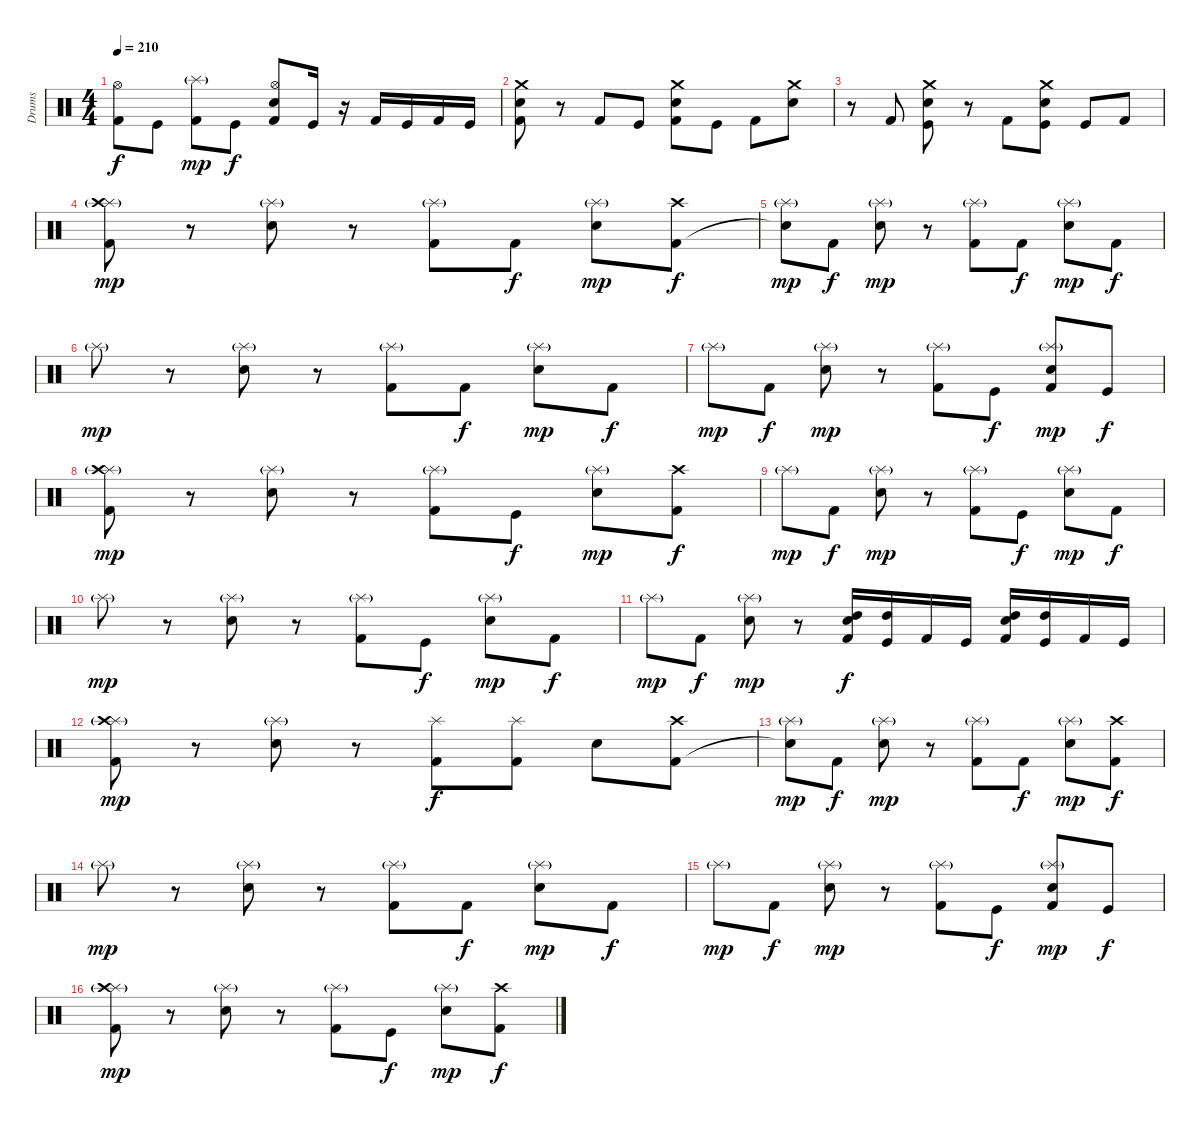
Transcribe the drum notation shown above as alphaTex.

\track ("Drums" "Drums") {instrument percussion}
\staff {score}
\articulation defaults
\ts (4 4)
\tempo 210
\clef neutral
\ks c
("Kick (hit) 2" "Hi-Hat (open)").8{dy f} "Kick (hit)".8 ("Kick (hit) 2" "Splash (hit)"{g}).8{dy mp} "Kick (hit)".8{dy f} ("Kick (hit) 2" "Electric Snare (hit)" "Hi-Hat (open)").8 "Kick (hit)".16 r.16 "Kick (hit) 2".16 "Kick (hit)".16 "Kick (hit) 2".16 "Kick (hit)".16 |
("Kick (hit) 2" "Electric Snare (hit)" "Crash medium (hit)").8 r.8 "Kick (hit) 2".8 "Kick (hit)".8 ("Kick (hit) 2" "Electric Snare (hit)" "Crash medium (hit)").8 "Kick (hit)".8 "Kick (hit) 2".8 ("Electric Snare (hit)" "Crash medium (hit)").8 |
r.8 "Kick (hit) 2".8 ("Kick (hit)" "Electric Snare (hit)" "Crash medium (hit)").8 r.8 "Kick (hit) 2".8 ("Kick (hit)" "Electric Snare (hit)" "Crash medium (hit)").8 "Kick (hit)".8 "Kick (hit) 2".8 |
("Kick (hit) 2" "Splash (hit)"{g} "Crash high (hit)").8{dy mp} r.8 ("Splash (hit)"{g} "Electric Snare (hit)").8 r.8 ("Kick (hit) 2" "Splash (hit)"{g}).8 "Kick (hit) 2".8{dy f} ("Splash (hit)"{g} "Electric Snare (hit)").8{dy mp} ("Kick (hit) 2" "Crash high (hit)").8{dy f} |
("Snare (hit)"{t} "Splash (hit)"{g}).8{dy mp} "Kick (hit) 2".8{dy f} ("Splash (hit)"{g} "Electric Snare (hit)").8{dy mp} r.8 ("Kick (hit) 2" "Splash (hit)"{g}).8 "Kick (hit) 2".8{dy f} ("Splash (hit)"{g} "Electric Snare (hit)").8{dy mp} "Kick (hit) 2".8{dy f} |
"Splash (hit)"{g}.8{dy mp} r.8 ("Splash (hit)"{g} "Electric Snare (hit)").8 r.8 ("Kick (hit) 2" "Splash (hit)"{g}).8 "Kick (hit) 2".8{dy f} ("Splash (hit)"{g} "Electric Snare (hit)").8{dy mp} "Kick (hit) 2".8{dy f} |
"Splash (hit)"{g}.8{dy mp} "Kick (hit) 2".8{dy f} ("Splash (hit)"{g} "Electric Snare (hit)").8{dy mp} r.8 ("Kick (hit) 2" "Splash (hit)"{g}).8 "Kick (hit)".8{dy f} ("Kick (hit) 2" "Splash (hit)"{g} "Electric Snare (hit)").8{dy mp} "Kick (hit)".8{dy f} |
("Kick (hit) 2" "Splash (hit)"{g} "Crash high (hit)").8{dy mp} r.8 ("Splash (hit)"{g} "Electric Snare (hit)").8 r.8 ("Kick (hit) 2" "Splash (hit)"{g}).8 "Kick (hit)".8{dy f} ("Splash (hit)"{g} "Electric Snare (hit)").8{dy mp} ("Kick (hit) 2" "Crash high (hit)").8{dy f} |
"Splash (hit)"{g}.8{dy mp} "Kick (hit) 2".8{dy f} ("Splash (hit)"{g} "Electric Snare (hit)").8{dy mp} r.8 ("Kick (hit) 2" "Splash (hit)"{g}).8 "Kick (hit)".8{dy f} ("Splash (hit)"{g} "Electric Snare (hit)").8{dy mp} "Kick (hit) 2".8{dy f} |
"Splash (hit)"{g}.8{dy mp} r.8 ("Splash (hit)"{g} "Electric Snare (hit)").8 r.8 ("Kick (hit) 2" "Splash (hit)"{g}).8 "Kick (hit)".8{dy f} ("Splash (hit)"{g} "Electric Snare (hit)").8{dy mp} "Kick (hit) 2".8{dy f} |
"Splash (hit)"{g}.8{dy mp} "Kick (hit) 2".8{dy f} ("Splash (hit)"{g} "Electric Snare (hit)").8{dy mp} r.8 ("Kick (hit) 2" "High Tom (hit)" "Electric Snare (hit)").16{dy f} ("Kick (hit)" "High Tom (hit)").16 "Kick (hit) 2".16 "Kick (hit)".16 ("Kick (hit) 2" "High Tom (hit)" "Electric Snare (hit)").16 ("Kick (hit)" "High Tom (hit)").16 "Kick (hit) 2".16 "Kick (hit)".16 |
("Kick (hit) 2" "Splash (hit)"{g} "Crash high (hit)").8{dy mp} r.8 ("Splash (hit)"{g} "Electric Snare (hit)").8 r.8 ("Kick (hit) 2" "Splash (hit)").8{dy f} ("Kick (hit) 2" "Splash (hit)").8 "Electric Snare (hit)".8 ("Kick (hit) 2" "Crash high (hit)").8 |
("Snare (hit)"{t} "Splash (hit)"{g}).8{dy mp} "Kick (hit) 2".8{dy f} ("Splash (hit)"{g} "Electric Snare (hit)").8{dy mp} r.8 ("Kick (hit) 2" "Splash (hit)"{g}).8 "Kick (hit) 2".8{dy f} ("Splash (hit)"{g} "Electric Snare (hit)").8{dy mp} ("Kick (hit) 2" "Crash high (hit)").8{dy f} |
"Splash (hit)"{g}.8{dy mp} r.8 ("Splash (hit)"{g} "Electric Snare (hit)").8 r.8 ("Kick (hit) 2" "Splash (hit)"{g}).8 "Kick (hit) 2".8{dy f} ("Splash (hit)"{g} "Electric Snare (hit)").8{dy mp} "Kick (hit) 2".8{dy f} |
"Splash (hit)"{g}.8{dy mp} "Kick (hit) 2".8{dy f} ("Splash (hit)"{g} "Electric Snare (hit)").8{dy mp} r.8 ("Kick (hit) 2" "Splash (hit)"{g}).8 "Kick (hit)".8{dy f} ("Kick (hit) 2" "Splash (hit)"{g} "Electric Snare (hit)").8{dy mp} "Kick (hit)".8{dy f} |
("Kick (hit) 2" "Splash (hit)"{g} "Crash high (hit)").8{dy mp} r.8 ("Splash (hit)"{g} "Electric Snare (hit)").8 r.8 ("Kick (hit) 2" "Splash (hit)"{g}).8 "Kick (hit)".8{dy f} ("Splash (hit)"{g} "Electric Snare (hit)").8{dy mp} ("Kick (hit) 2" "Crash high (hit)").8{dy f}
